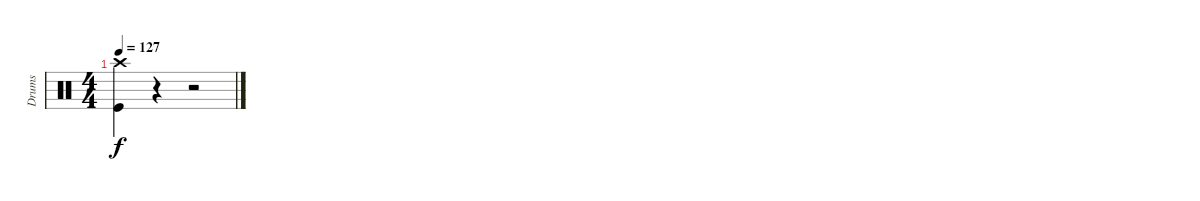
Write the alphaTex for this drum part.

\track ("Drums" "Drums") {instrument percussion}
\staff {score}
\articulation defaults
\ts (4 4)
\tempo 127
\clef neutral
\ks c
("Crash high (hit)" "Kick (hit)").4{dy f} r.4 r.2
